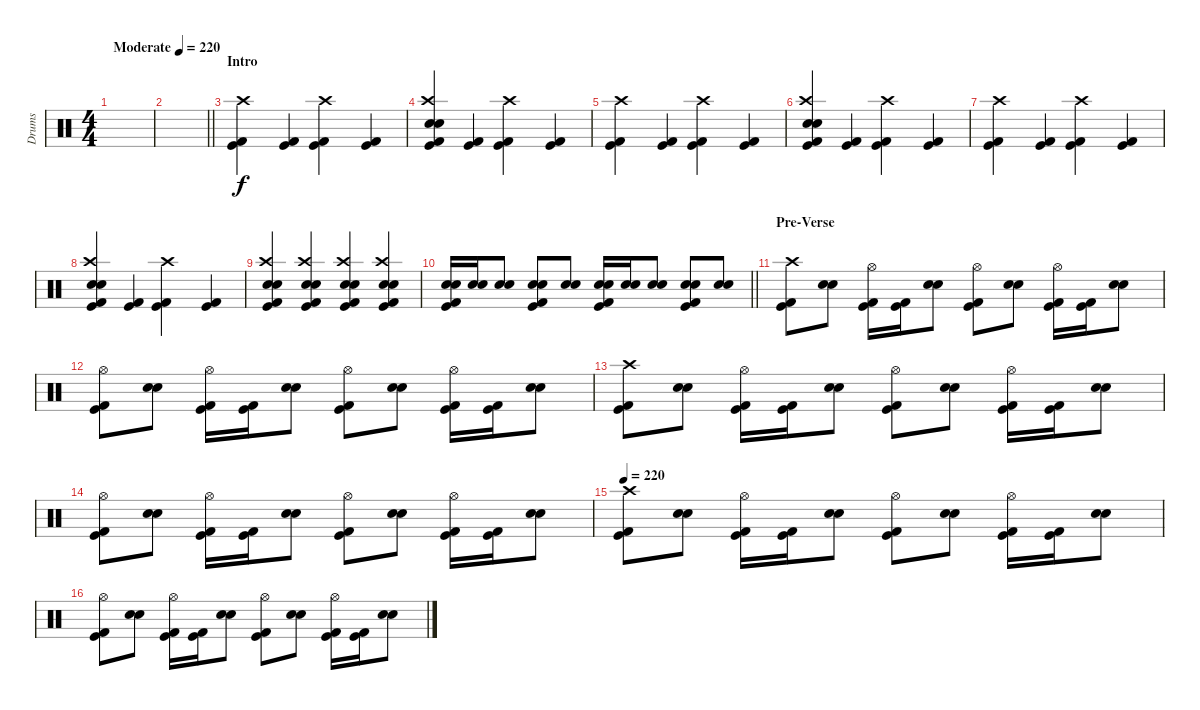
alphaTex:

\track ("Drums" "Drums") {instrument percussion}
\staff {score}
\articulation defaults
\ts (4 4)
\tempo (220 "Moderate")
\clef neutral
\ks c
|
\barLineRight lightlight
|
\section ("" "Intro")
("Kick (hit) 2" "Kick (hit)" "Crash high (hit)").4 ("Kick (hit) 2" "Kick (hit)").4 ("Kick (hit) 2" "Kick (hit)" "Crash high (hit)").4 ("Kick (hit) 2" "Kick (hit)").4 |
("Kick (hit) 2" "Kick (hit)" "Electric Snare (hit)" "Snare (hit) 2" "Crash high (hit)").4 ("Kick (hit) 2" "Kick (hit)").4 ("Kick (hit) 2" "Kick (hit)" "Crash high (hit)").4 ("Kick (hit) 2" "Kick (hit)").4 |
("Kick (hit) 2" "Kick (hit)" "Crash high (hit)").4 ("Kick (hit) 2" "Kick (hit)").4 ("Kick (hit) 2" "Kick (hit)" "Crash high (hit)").4 ("Kick (hit) 2" "Kick (hit)").4 |
("Kick (hit) 2" "Kick (hit)" "Electric Snare (hit)" "Snare (hit) 2" "Crash high (hit)").4 ("Kick (hit) 2" "Kick (hit)").4 ("Kick (hit) 2" "Kick (hit)" "Crash high (hit)").4 ("Kick (hit) 2" "Kick (hit)").4 |
("Kick (hit) 2" "Kick (hit)" "Crash high (hit)").4 ("Kick (hit) 2" "Kick (hit)").4 ("Kick (hit) 2" "Kick (hit)" "Crash high (hit)").4 ("Kick (hit) 2" "Kick (hit)").4 |
("Kick (hit) 2" "Kick (hit)" "Electric Snare (hit)" "Snare (hit) 2" "Crash high (hit)").4 ("Kick (hit) 2" "Kick (hit)").4 ("Kick (hit) 2" "Kick (hit)" "Crash high (hit)").4 ("Kick (hit) 2" "Kick (hit)").4 |
("Kick (hit) 2" "Kick (hit)" "Electric Snare (hit)" "Snare (hit) 2" "Crash high (hit)").4 ("Kick (hit) 2" "Kick (hit)" "Electric Snare (hit)" "Snare (hit) 2" "Crash high (hit)").4 ("Kick (hit) 2" "Kick (hit)" "Electric Snare (hit)" "Snare (hit) 2" "Crash high (hit)").4 ("Kick (hit) 2" "Kick (hit)" "Electric Snare (hit)" "Snare (hit) 2" "Crash high (hit)").4 |
\barLineRight lightlight
("Kick (hit) 2" "Kick (hit)" "Electric Snare (hit)" "Snare (hit) 2").16 ("Electric Snare (hit)" "Snare (hit) 2").16 ("Electric Snare (hit)" "Snare (hit) 2").8 ("Kick (hit) 2" "Kick (hit)" "Electric Snare (hit)" "Snare (hit) 2").8 ("Electric Snare (hit)" "Snare (hit) 2").8 ("Kick (hit) 2" "Kick (hit)" "Electric Snare (hit)" "Snare (hit) 2").16 ("Electric Snare (hit)" "Snare (hit) 2").16 ("Electric Snare (hit)" "Snare (hit) 2").8 ("Kick (hit) 2" "Kick (hit)" "Electric Snare (hit)" "Snare (hit) 2").8 ("Electric Snare (hit)" "Snare (hit) 2").8 |
\section ("" "Pre-Verse")
("Kick (hit) 2" "Kick (hit)" "Crash high (hit)").8 ("Electric Snare (hit)" "Snare (hit) 2").8 ("Kick (hit) 2" "Kick (hit)" "Hi-Hat (open)").16 ("Kick (hit) 2" "Kick (hit)").16 ("Electric Snare (hit)" "Snare (hit) 2").8 ("Kick (hit) 2" "Kick (hit)" "Hi-Hat (open)").8 ("Electric Snare (hit)" "Snare (hit) 2").8 ("Kick (hit) 2" "Kick (hit)" "Hi-Hat (open)").16 ("Kick (hit) 2" "Kick (hit)").16 ("Electric Snare (hit)" "Snare (hit) 2").8 |
("Kick (hit) 2" "Kick (hit)" "Hi-Hat (open)").8 ("Electric Snare (hit)" "Snare (hit) 2").8 ("Kick (hit) 2" "Kick (hit)" "Hi-Hat (open)").16 ("Kick (hit) 2" "Kick (hit)").16 ("Electric Snare (hit)" "Snare (hit) 2").8 ("Kick (hit) 2" "Kick (hit)" "Hi-Hat (open)").8 ("Electric Snare (hit)" "Snare (hit) 2").8 ("Kick (hit) 2" "Kick (hit)" "Hi-Hat (open)").16 ("Kick (hit) 2" "Kick (hit)").16 ("Electric Snare (hit)" "Snare (hit) 2").8 |
("Kick (hit) 2" "Kick (hit)" "Crash high (hit)").8 ("Electric Snare (hit)" "Snare (hit) 2").8 ("Kick (hit) 2" "Kick (hit)" "Hi-Hat (open)").16 ("Kick (hit) 2" "Kick (hit)").16 ("Electric Snare (hit)" "Snare (hit) 2").8 ("Kick (hit) 2" "Kick (hit)" "Hi-Hat (open)").8 ("Electric Snare (hit)" "Snare (hit) 2").8 ("Kick (hit) 2" "Kick (hit)" "Hi-Hat (open)").16 ("Kick (hit) 2" "Kick (hit)").16 ("Electric Snare (hit)" "Snare (hit) 2").8 |
("Kick (hit) 2" "Kick (hit)" "Hi-Hat (open)").8 ("Electric Snare (hit)" "Snare (hit) 2").8 ("Kick (hit) 2" "Kick (hit)" "Hi-Hat (open)").16 ("Kick (hit) 2" "Kick (hit)").16 ("Electric Snare (hit)" "Snare (hit) 2").8 ("Kick (hit) 2" "Kick (hit)" "Hi-Hat (open)").8 ("Electric Snare (hit)" "Snare (hit) 2").8 ("Kick (hit) 2" "Kick (hit)" "Hi-Hat (open)").16 ("Kick (hit) 2" "Kick (hit)").16 ("Electric Snare (hit)" "Snare (hit) 2").8 |
\tempo 220
("Kick (hit) 2" "Kick (hit)" "Crash high (hit)").8 ("Electric Snare (hit)" "Snare (hit) 2").8 ("Kick (hit) 2" "Kick (hit)" "Hi-Hat (open)").16 ("Kick (hit) 2" "Kick (hit)").16 ("Electric Snare (hit)" "Snare (hit) 2").8 ("Kick (hit) 2" "Kick (hit)" "Hi-Hat (open)").8 ("Electric Snare (hit)" "Snare (hit) 2").8 ("Kick (hit) 2" "Kick (hit)" "Hi-Hat (open)").16 ("Kick (hit) 2" "Kick (hit)").16 ("Electric Snare (hit)" "Snare (hit) 2").8 |
("Kick (hit) 2" "Kick (hit)" "Hi-Hat (open)").8 ("Electric Snare (hit)" "Snare (hit) 2").8 ("Kick (hit) 2" "Kick (hit)" "Hi-Hat (open)").16 ("Kick (hit) 2" "Kick (hit)").16 ("Electric Snare (hit)" "Snare (hit) 2").8 ("Kick (hit) 2" "Kick (hit)" "Hi-Hat (open)").8 ("Electric Snare (hit)" "Snare (hit) 2").8 ("Kick (hit) 2" "Kick (hit)" "Hi-Hat (open)").16 ("Kick (hit) 2" "Kick (hit)").16 ("Electric Snare (hit)" "Snare (hit) 2").8
